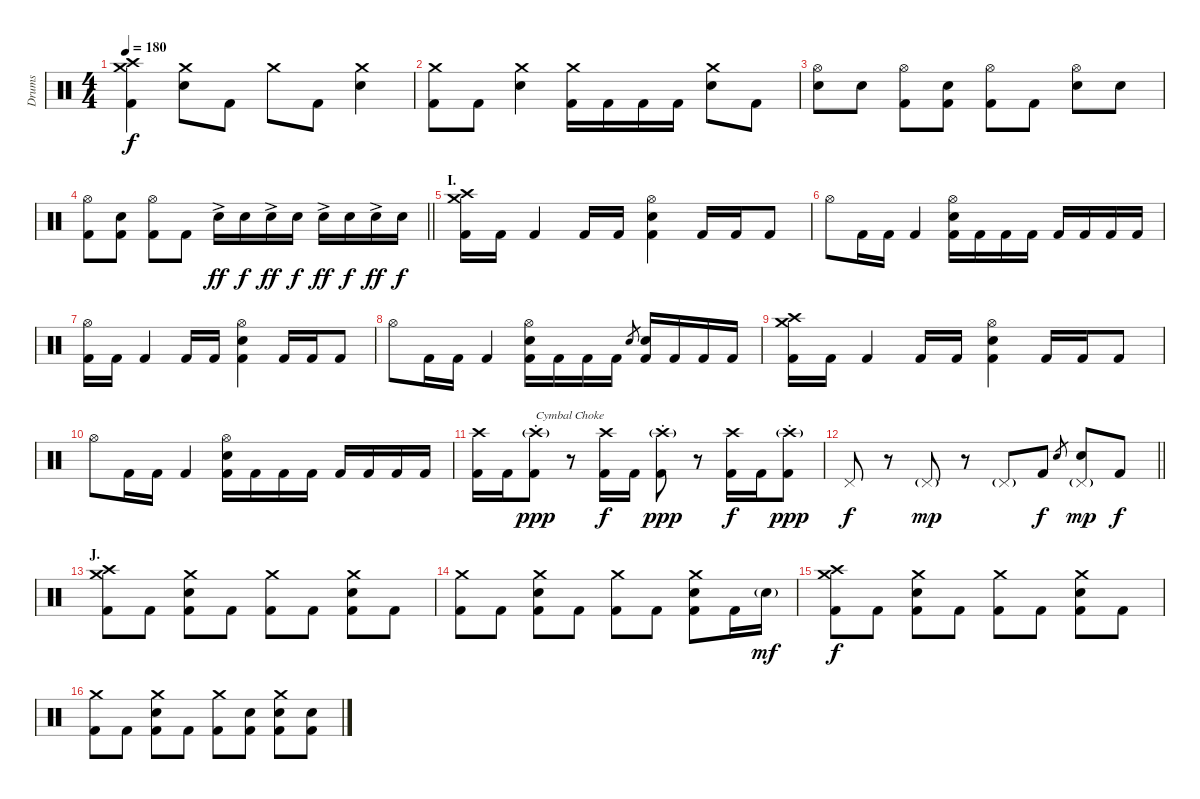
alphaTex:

\track ("Drums" "Drums") {instrument percussion}
\staff {score}
\articulation defaults
\ts (4 4)
\tempo 180
\clef neutral
\ks c
("Crash medium (hit)" "Crash high (hit)" "Kick (hit) 2").4{dy f} ("Crash medium (hit)" "Electric Snare (hit)").8 "Kick (hit) 2".8 "Crash medium (hit)".8 "Kick (hit) 2".8 ("Crash medium (hit)" "Electric Snare (hit)").4 |
("Crash medium (hit)" "Kick (hit) 2").8 "Kick (hit) 2".8 ("Crash medium (hit)" "Electric Snare (hit)").4 ("Crash medium (hit)" "Kick (hit) 2").16 "Kick (hit) 2".16 "Kick (hit) 2".16 "Kick (hit) 2".16 ("Crash medium (hit)" "Electric Snare (hit)").8 "Kick (hit) 2".8 |
("Hi-Hat (open)" "Electric Snare (hit)").8 "Electric Snare (hit)".8 ("Hi-Hat (open)" "Kick (hit) 2").8 ("Electric Snare (hit)" "Kick (hit) 2").8 ("Hi-Hat (open)" "Kick (hit) 2").8 "Kick (hit) 2".8 ("Hi-Hat (open)" "Electric Snare (hit)").8 "Electric Snare (hit)".8 |
\barLineRight lightlight
("Hi-Hat (open)" "Kick (hit) 2").8 ("Electric Snare (hit)" "Kick (hit) 2").8 ("Hi-Hat (open)" "Kick (hit) 2").8 "Kick (hit) 2".8 "Electric Snare (hit)"{ac}.16{dy ff} "Electric Snare (hit)".16{dy f} "Electric Snare (hit)"{ac}.16{dy ff} "Electric Snare (hit)".16{dy f} "Electric Snare (hit)"{ac}.16{dy ff} "Electric Snare (hit)".16{dy f} "Electric Snare (hit)"{ac}.16{dy ff} "Electric Snare (hit)".16{dy f} |
\section ("" "I.")
("Crash medium (hit)" "Crash high (hit)" "Kick (hit) 2").16 "Kick (hit) 2".16 "Kick (hit) 2".4 "Kick (hit) 2".16 "Kick (hit) 2".16 ("Hi-Hat (open)" "Electric Snare (hit)" "Kick (hit) 2").4 "Kick (hit) 2".16 "Kick (hit) 2".16 "Kick (hit) 2".8 |
"Hi-Hat (open)".8 "Kick (hit) 2".16 "Kick (hit) 2".16 "Kick (hit) 2".4 ("Hi-Hat (open)" "Electric Snare (hit)" "Kick (hit) 2").16 "Kick (hit) 2".16 "Kick (hit) 2".16 "Kick (hit) 2".16 "Kick (hit) 2".16 "Kick (hit) 2".16 "Kick (hit) 2".16 "Kick (hit) 2".16 |
("Hi-Hat (open)" "Kick (hit) 2").16 "Kick (hit) 2".16 "Kick (hit) 2".4 "Kick (hit) 2".16 "Kick (hit) 2".16 ("Hi-Hat (open)" "Electric Snare (hit)" "Kick (hit) 2").4 "Kick (hit) 2".16 "Kick (hit) 2".16 "Kick (hit) 2".8 |
"Hi-Hat (open)".8 "Kick (hit) 2".16 "Kick (hit) 2".16 "Kick (hit) 2".4 ("Hi-Hat (open)" "Electric Snare (hit)" "Kick (hit) 2").16 "Kick (hit) 2".16 "Kick (hit) 2".16 "Kick (hit) 2".16 "Electric Snare (hit)".8{gr} ("Electric Snare (hit)" "Kick (hit) 2").16 "Kick (hit) 2".16 "Kick (hit) 2".16 "Kick (hit) 2".16 |
("Crash medium (hit)" "Crash high (hit)" "Kick (hit) 2").16 "Kick (hit) 2".16 "Kick (hit) 2".4 "Kick (hit) 2".16 "Kick (hit) 2".16 ("Hi-Hat (open)" "Electric Snare (hit)" "Kick (hit) 2").4 "Kick (hit) 2".16 "Kick (hit) 2".16 "Kick (hit) 2".8 |
"Hi-Hat (open)".8 "Kick (hit) 2".16 "Kick (hit) 2".16 "Kick (hit) 2".4 ("Hi-Hat (open)" "Electric Snare (hit)" "Kick (hit) 2").16 "Kick (hit) 2".16 "Kick (hit) 2".16 "Kick (hit) 2".16 "Kick (hit) 2".16 "Kick (hit) 2".16 "Kick (hit) 2".16 "Kick (hit) 2".16 |
("Crash high (hit)" "Kick (hit) 2").16 "Kick (hit) 2".16 ("Crash high (hit)"{g st} "Kick (hit) 2").8{txt "Cymbal Choke" dy ppp} r.8 ("Crash high (hit)" "Kick (hit) 2").16{dy f} "Kick (hit) 2".16 ("Crash high (hit)"{g st} "Kick (hit) 2").8{dy ppp} r.8 ("Crash high (hit)" "Kick (hit) 2").16{dy f} "Kick (hit) 2".16 ("Crash high (hit)"{g st} "Kick (hit) 2").8{dy ppp} |
\barLineRight lightlight "Pedal Hi-Hat (hit)".8{dy f}
r.8 "Pedal Hi-Hat (hit)"{g}.8{dy mp} r.8 "Pedal Hi-Hat (hit)"{g}.8 "Kick (hit) 2".8{dy f} "Electric Snare (hit)".8{gr} ("Pedal Hi-Hat (hit)"{g} "Electric Snare (hit)").8{dy mp} "Kick (hit) 2".8{dy f} |
\section ("" "J.")
("Crash medium (hit)" "Crash high (hit)" "Kick (hit) 2").8 "Kick (hit) 2".8 ("Crash medium (hit)" "Electric Snare (hit)" "Kick (hit) 2").8 "Kick (hit) 2".8 ("Crash medium (hit)" "Kick (hit) 2").8 "Kick (hit) 2".8 ("Crash medium (hit)" "Electric Snare (hit)" "Kick (hit) 2").8 "Kick (hit) 2".8 |
("Crash medium (hit)" "Kick (hit) 2").8 "Kick (hit) 2".8 ("Crash medium (hit)" "Electric Snare (hit)" "Kick (hit) 2").8 "Kick (hit) 2".8 ("Crash medium (hit)" "Kick (hit) 2").8 "Kick (hit) 2".8 ("Crash medium (hit)" "Electric Snare (hit)" "Kick (hit) 2").8 "Kick (hit) 2".16 "Electric Snare (hit)"{g}.16{dy mf} |
("Crash medium (hit)" "Crash high (hit)" "Kick (hit) 2").8{dy f} "Kick (hit) 2".8 ("Crash medium (hit)" "Electric Snare (hit)" "Kick (hit) 2").8 "Kick (hit) 2".8 ("Crash medium (hit)" "Kick (hit) 2").8 "Kick (hit) 2".8 ("Crash medium (hit)" "Electric Snare (hit)" "Kick (hit) 2").8 "Kick (hit) 2".8 |
("Crash medium (hit)" "Kick (hit) 2").8 "Kick (hit) 2".8 ("Crash medium (hit)" "Electric Snare (hit)" "Kick (hit) 2").8 "Kick (hit) 2".8 ("Crash medium (hit)" "Kick (hit) 2").8 ("Electric Snare (hit)" "Kick (hit) 2").8 ("Crash medium (hit)" "Electric Snare (hit)" "Kick (hit) 2").8 ("Electric Snare (hit)" "Kick (hit) 2").8
